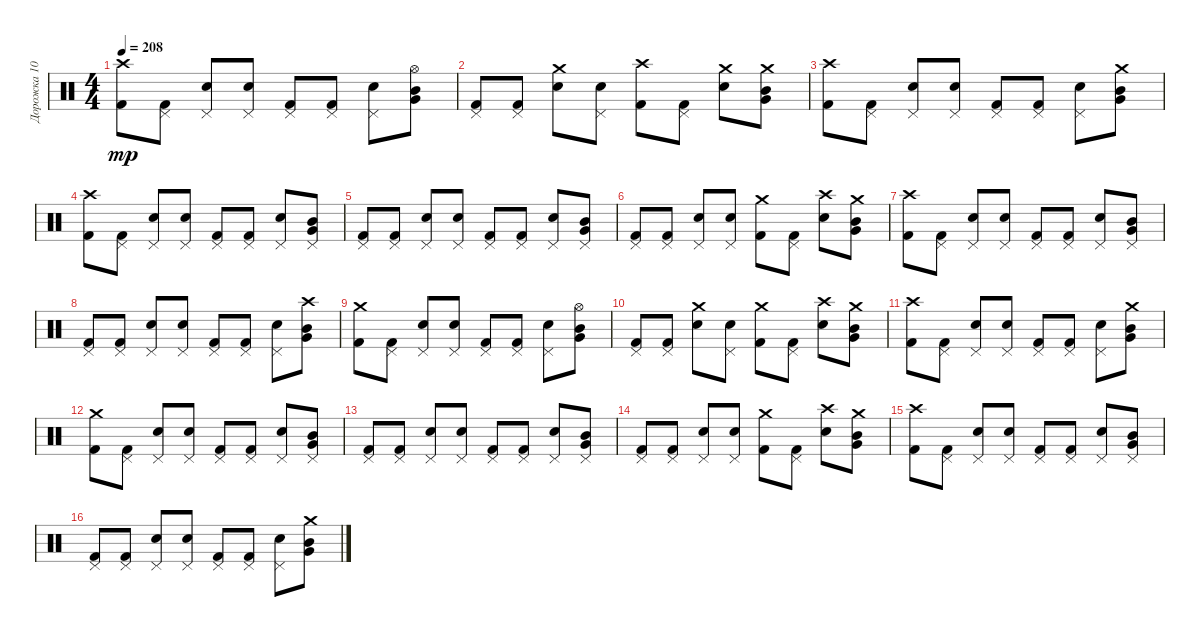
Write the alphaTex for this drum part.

\track ("Дорожка 10" "Дорожка 10") {instrument percussion}
\staff {score}
\articulation defaults
\ts (4 4)
\tempo 208
\clef neutral
\ks c
("Kick (hit) 2" "Crash high (hit)").8{dy mp} ("Kick (hit) 2" "Pedal Hi-Hat (hit)").8 ("Snare (hit) 2" "Pedal Hi-Hat (hit)").8 ("Snare (hit) 2" "Pedal Hi-Hat (hit)").8 ("Kick (hit) 2" "Pedal Hi-Hat (hit)").8 ("Kick (hit) 2" "Pedal Hi-Hat (hit)").8 ("Snare (hit) 2" "Pedal Hi-Hat (hit)").8 ("Mid Tom (hit)" "Very Low Tom (hit)" "Hi-Hat (open)").8 |
("Kick (hit) 2" "Pedal Hi-Hat (hit)").8 ("Kick (hit) 2" "Pedal Hi-Hat (hit)").8 ("Snare (hit) 2" "Crash medium (hit)").8 ("Snare (hit) 2" "Pedal Hi-Hat (hit)").8 ("Kick (hit) 2" "Crash high (hit)").8 ("Kick (hit) 2" "Pedal Hi-Hat (hit)").8 ("Snare (hit) 2" "Crash medium (hit)").8 ("Mid Tom (hit)" "Very Low Tom (hit)" "Crash medium (hit)").8 |
("Kick (hit) 2" "Crash high (hit)").8 ("Kick (hit) 2" "Pedal Hi-Hat (hit)").8 ("Snare (hit) 2" "Pedal Hi-Hat (hit)").8 ("Snare (hit) 2" "Pedal Hi-Hat (hit)").8 ("Kick (hit) 2" "Pedal Hi-Hat (hit)").8 ("Kick (hit) 2" "Pedal Hi-Hat (hit)").8 ("Snare (hit) 2" "Pedal Hi-Hat (hit)").8 ("Mid Tom (hit)" "Very Low Tom (hit)" "Crash medium (hit)").8 |
("Kick (hit) 2" "Crash high (hit)").8 ("Kick (hit) 2" "Pedal Hi-Hat (hit)").8 ("Snare (hit) 2" "Pedal Hi-Hat (hit)").8 ("Snare (hit) 2" "Pedal Hi-Hat (hit)").8 ("Kick (hit) 2" "Pedal Hi-Hat (hit)").8 ("Kick (hit) 2" "Pedal Hi-Hat (hit)").8 ("Snare (hit) 2" "Pedal Hi-Hat (hit)").8 ("Mid Tom (hit)" "Very Low Tom (hit)" "Pedal Hi-Hat (hit)").8 |
("Kick (hit) 2" "Pedal Hi-Hat (hit)").8 ("Kick (hit) 2" "Pedal Hi-Hat (hit)").8 ("Snare (hit) 2" "Pedal Hi-Hat (hit)").8 ("Snare (hit) 2" "Pedal Hi-Hat (hit)").8 ("Kick (hit) 2" "Pedal Hi-Hat (hit)").8 ("Kick (hit) 2" "Pedal Hi-Hat (hit)").8 ("Snare (hit) 2" "Pedal Hi-Hat (hit)").8 ("Mid Tom (hit)" "Very Low Tom (hit)" "Pedal Hi-Hat (hit)").8 |
("Kick (hit) 2" "Pedal Hi-Hat (hit)").8 ("Kick (hit) 2" "Pedal Hi-Hat (hit)").8 ("Snare (hit) 2" "Pedal Hi-Hat (hit)").8 ("Snare (hit) 2" "Pedal Hi-Hat (hit)").8 ("Kick (hit) 2" "Crash medium (hit)").8 ("Kick (hit) 2" "Pedal Hi-Hat (hit)").8 ("Snare (hit) 2" "Crash high (hit)").8 ("Mid Tom (hit)" "Very Low Tom (hit)" "Crash medium (hit)").8 |
("Kick (hit) 2" "Crash high (hit)").8 ("Kick (hit) 2" "Pedal Hi-Hat (hit)").8 ("Snare (hit) 2" "Pedal Hi-Hat (hit)").8 ("Snare (hit) 2" "Pedal Hi-Hat (hit)").8 ("Kick (hit) 2" "Pedal Hi-Hat (hit)").8 ("Kick (hit) 2" "Pedal Hi-Hat (hit)").8 ("Snare (hit) 2" "Pedal Hi-Hat (hit)").8 ("Mid Tom (hit)" "Very Low Tom (hit)" "Pedal Hi-Hat (hit)").8 |
("Kick (hit) 2" "Pedal Hi-Hat (hit)").8 ("Kick (hit) 2" "Pedal Hi-Hat (hit)").8 ("Snare (hit) 2" "Pedal Hi-Hat (hit)").8 ("Snare (hit) 2" "Pedal Hi-Hat (hit)").8 ("Kick (hit) 2" "Pedal Hi-Hat (hit)").8 ("Kick (hit) 2" "Pedal Hi-Hat (hit)").8 ("Snare (hit) 2" "Pedal Hi-Hat (hit)").8 ("Mid Tom (hit)" "Very Low Tom (hit)" "Crash high (hit)").8 |
("Kick (hit) 2" "Crash medium (hit)").8 ("Kick (hit) 2" "Pedal Hi-Hat (hit)").8 ("Snare (hit) 2" "Pedal Hi-Hat (hit)").8 ("Snare (hit) 2" "Pedal Hi-Hat (hit)").8 ("Kick (hit) 2" "Pedal Hi-Hat (hit)").8 ("Kick (hit) 2" "Pedal Hi-Hat (hit)").8 ("Snare (hit) 2" "Pedal Hi-Hat (hit)").8 ("Mid Tom (hit)" "Very Low Tom (hit)" "Hi-Hat (open)").8 |
("Kick (hit) 2" "Pedal Hi-Hat (hit)").8 ("Kick (hit) 2" "Pedal Hi-Hat (hit)").8 ("Snare (hit) 2" "Crash medium (hit)").8 ("Snare (hit) 2" "Pedal Hi-Hat (hit)").8 ("Kick (hit) 2" "Crash medium (hit)").8 ("Kick (hit) 2" "Pedal Hi-Hat (hit)").8 ("Snare (hit) 2" "Crash high (hit)").8 ("Mid Tom (hit)" "Very Low Tom (hit)" "Crash medium (hit)").8 |
("Kick (hit) 2" "Crash high (hit)").8 ("Kick (hit) 2" "Pedal Hi-Hat (hit)").8 ("Snare (hit) 2" "Pedal Hi-Hat (hit)").8 ("Snare (hit) 2" "Pedal Hi-Hat (hit)").8 ("Kick (hit) 2" "Pedal Hi-Hat (hit)").8 ("Kick (hit) 2" "Pedal Hi-Hat (hit)").8 ("Snare (hit) 2" "Pedal Hi-Hat (hit)").8 ("Mid Tom (hit)" "Very Low Tom (hit)" "Crash medium (hit)").8 |
("Kick (hit) 2" "Crash medium (hit)").8 ("Kick (hit) 2" "Pedal Hi-Hat (hit)").8 ("Snare (hit) 2" "Pedal Hi-Hat (hit)").8 ("Snare (hit) 2" "Pedal Hi-Hat (hit)").8 ("Kick (hit) 2" "Pedal Hi-Hat (hit)").8 ("Kick (hit) 2" "Pedal Hi-Hat (hit)").8 ("Snare (hit) 2" "Pedal Hi-Hat (hit)").8 ("Mid Tom (hit)" "Very Low Tom (hit)" "Pedal Hi-Hat (hit)").8 |
("Kick (hit) 2" "Pedal Hi-Hat (hit)").8 ("Kick (hit) 2" "Pedal Hi-Hat (hit)").8 ("Snare (hit) 2" "Pedal Hi-Hat (hit)").8 ("Snare (hit) 2" "Pedal Hi-Hat (hit)").8 ("Kick (hit) 2" "Pedal Hi-Hat (hit)").8 ("Kick (hit) 2" "Pedal Hi-Hat (hit)").8 ("Snare (hit) 2" "Pedal Hi-Hat (hit)").8 ("Mid Tom (hit)" "Very Low Tom (hit)" "Pedal Hi-Hat (hit)").8 |
("Kick (hit) 2" "Pedal Hi-Hat (hit)").8 ("Kick (hit) 2" "Pedal Hi-Hat (hit)").8 ("Snare (hit) 2" "Pedal Hi-Hat (hit)").8 ("Snare (hit) 2" "Pedal Hi-Hat (hit)").8 ("Kick (hit) 2" "Crash medium (hit)").8 ("Kick (hit) 2" "Pedal Hi-Hat (hit)").8 ("Snare (hit) 2" "Crash high (hit)").8 ("Mid Tom (hit)" "Very Low Tom (hit)" "Crash medium (hit)").8 |
("Kick (hit) 2" "Crash high (hit)").8 ("Kick (hit) 2" "Pedal Hi-Hat (hit)").8 ("Snare (hit) 2" "Pedal Hi-Hat (hit)").8 ("Snare (hit) 2" "Pedal Hi-Hat (hit)").8 ("Kick (hit) 2" "Pedal Hi-Hat (hit)").8 ("Kick (hit) 2" "Pedal Hi-Hat (hit)").8 ("Snare (hit) 2" "Pedal Hi-Hat (hit)").8 ("Mid Tom (hit)" "Very Low Tom (hit)" "Pedal Hi-Hat (hit)").8 |
("Kick (hit) 2" "Pedal Hi-Hat (hit)").8 ("Kick (hit) 2" "Pedal Hi-Hat (hit)").8 ("Snare (hit) 2" "Pedal Hi-Hat (hit)").8 ("Snare (hit) 2" "Pedal Hi-Hat (hit)").8 ("Kick (hit) 2" "Pedal Hi-Hat (hit)").8 ("Kick (hit) 2" "Pedal Hi-Hat (hit)").8 ("Snare (hit) 2" "Pedal Hi-Hat (hit)").8 ("Mid Tom (hit)" "Very Low Tom (hit)" "Crash medium (hit)").8
